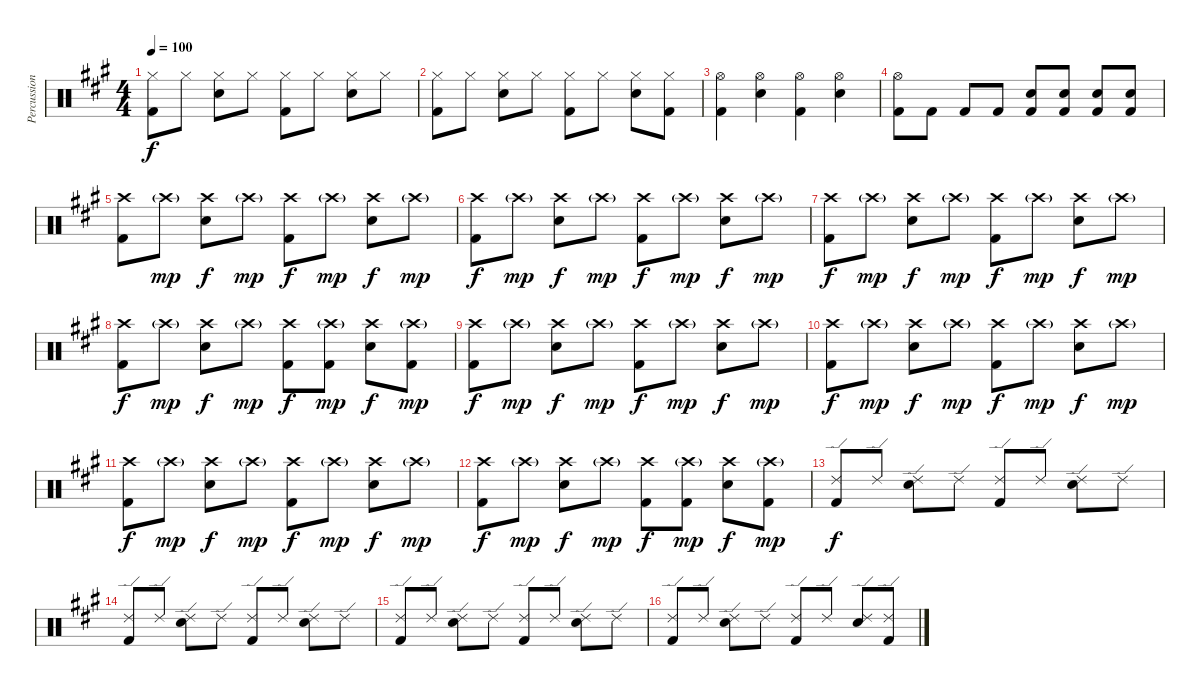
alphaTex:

\track ("Percussion" "Percussion") {instrument percussion}
\staff {score}
\articulation defaults
\ts (4 4)
\tempo 100
\clef neutral
\ks a
("Hi-Hat (closed)" "Kick (hit) 2").8{dy f} "Hi-Hat (closed)".8 ("Hi-Hat (closed)" "Snare (hit) 2").8 "Hi-Hat (closed)".8 ("Hi-Hat (closed)" "Kick (hit) 2").8 "Hi-Hat (closed)".8 ("Hi-Hat (closed)" "Snare (hit) 2").8 "Hi-Hat (closed)".8 |
("Hi-Hat (closed)" "Kick (hit) 2").8 "Hi-Hat (closed)".8 ("Hi-Hat (closed)" "Snare (hit) 2").8 "Hi-Hat (closed)".8 ("Hi-Hat (closed)" "Kick (hit) 2").8 "Hi-Hat (closed)".8 ("Hi-Hat (closed)" "Snare (hit) 2").8 ("Hi-Hat (closed)" "Kick (hit) 2").8 |
("Hi-Hat (open)" "Kick (hit) 2").4 ("Hi-Hat (open)" "Snare (hit) 2").4 ("Hi-Hat (open)" "Kick (hit) 2").4 ("Hi-Hat (open)" "Snare (hit) 2").4 |
("Hi-Hat (open)" "Kick (hit) 2").8 "Kick (hit) 2".8 "Kick (hit) 2".8 "Kick (hit) 2".8 ("Snare (hit) 2" "Kick (hit) 2").8 ("Snare (hit) 2" "Kick (hit) 2").8 ("Snare (hit) 2" "Kick (hit) 2").8 ("Snare (hit) 2" "Kick (hit) 2").8 |
("Crash high (hit)" "Kick (hit) 2").8 "Crash high (hit)"{g}.8{dy mp} ("Crash high (hit)" "Snare (hit) 2").8{dy f} "Crash high (hit)"{g}.8{dy mp} ("Crash high (hit)" "Kick (hit) 2").8{dy f} "Crash high (hit)"{g}.8{dy mp} ("Crash high (hit)" "Snare (hit) 2").8{dy f} "Crash high (hit)"{g}.8{dy mp} |
("Crash high (hit)" "Kick (hit) 2").8{dy f} "Crash high (hit)"{g}.8{dy mp} ("Crash high (hit)" "Snare (hit) 2").8{dy f} "Crash high (hit)"{g}.8{dy mp} ("Crash high (hit)" "Kick (hit) 2").8{dy f} "Crash high (hit)"{g}.8{dy mp} ("Crash high (hit)" "Snare (hit) 2").8{dy f} "Crash high (hit)"{g}.8{dy mp} |
("Crash high (hit)" "Kick (hit) 2").8{dy f} "Crash high (hit)"{g}.8{dy mp} ("Crash high (hit)" "Snare (hit) 2").8{dy f} "Crash high (hit)"{g}.8{dy mp} ("Crash high (hit)" "Kick (hit) 2").8{dy f} "Crash high (hit)"{g}.8{dy mp} ("Crash high (hit)" "Snare (hit) 2").8{dy f} "Crash high (hit)"{g}.8{dy mp} |
("Crash high (hit)" "Kick (hit) 2").8{dy f} "Crash high (hit)"{g}.8{dy mp} ("Crash high (hit)" "Snare (hit) 2").8{dy f} "Crash high (hit)"{g}.8{dy mp} ("Crash high (hit)" "Kick (hit) 2").8{dy f} ("Crash high (hit)"{g} "Kick (hit) 2").8{dy mp} ("Crash high (hit)" "Snare (hit) 2").8{dy f} ("Crash high (hit)"{g} "Kick (hit) 2").8{dy mp} |
("Crash high (hit)" "Kick (hit) 2").8{dy f} "Crash high (hit)"{g}.8{dy mp} ("Crash high (hit)" "Snare (hit) 2").8{dy f} "Crash high (hit)"{g}.8{dy mp} ("Crash high (hit)" "Kick (hit) 2").8{dy f} "Crash high (hit)"{g}.8{dy mp} ("Crash high (hit)" "Snare (hit) 2").8{dy f} "Crash high (hit)"{g}.8{dy mp} |
("Crash high (hit)" "Kick (hit) 2").8{dy f} "Crash high (hit)"{g}.8{dy mp} ("Crash high (hit)" "Snare (hit) 2").8{dy f} "Crash high (hit)"{g}.8{dy mp} ("Crash high (hit)" "Kick (hit) 2").8{dy f} "Crash high (hit)"{g}.8{dy mp} ("Crash high (hit)" "Snare (hit) 2").8{dy f} "Crash high (hit)"{g}.8{dy mp} |
("Crash high (hit)" "Kick (hit) 2").8{dy f} "Crash high (hit)"{g}.8{dy mp} ("Crash high (hit)" "Snare (hit) 2").8{dy f} "Crash high (hit)"{g}.8{dy mp} ("Crash high (hit)" "Kick (hit) 2").8{dy f} "Crash high (hit)"{g}.8{dy mp} ("Crash high (hit)" "Snare (hit) 2").8{dy f} "Crash high (hit)"{g}.8{dy mp} |
("Crash high (hit)" "Kick (hit) 2").8{dy f} "Crash high (hit)"{g}.8{dy mp} ("Crash high (hit)" "Snare (hit) 2").8{dy f} "Crash high (hit)"{g}.8{dy mp} ("Crash high (hit)" "Kick (hit) 2").8{dy f} ("Crash high (hit)"{g} "Kick (hit) 2").8{dy mp} ("Crash high (hit)" "Snare (hit) 2").8{dy f} ("Crash high (hit)"{g} "Kick (hit) 2").8{dy mp} |
("Ride (edge) 2" "Kick (hit) 2").8{dy f} "Ride (edge) 2".8 ("Ride (edge) 2" "Snare (hit) 2").8 "Ride (edge) 2".8 ("Ride (edge) 2" "Kick (hit) 2").8 "Ride (edge) 2".8 ("Ride (edge) 2" "Snare (hit) 2").8 "Ride (edge) 2".8 |
("Ride (edge) 2" "Kick (hit) 2").8 "Ride (edge) 2".8 ("Ride (edge) 2" "Snare (hit) 2").8 "Ride (edge) 2".8 ("Ride (edge) 2" "Kick (hit) 2").8 "Ride (edge) 2".8 ("Ride (edge) 2" "Snare (hit) 2").8 "Ride (edge) 2".8 |
("Ride (edge) 2" "Kick (hit) 2").8 "Ride (edge) 2".8 ("Ride (edge) 2" "Snare (hit) 2").8 "Ride (edge) 2".8 ("Ride (edge) 2" "Kick (hit) 2").8 "Ride (edge) 2".8 ("Ride (edge) 2" "Snare (hit) 2").8 "Ride (edge) 2".8 |
("Ride (edge) 2" "Kick (hit) 2").8 "Ride (edge) 2".8 ("Ride (edge) 2" "Snare (hit) 2").8 "Ride (edge) 2".8 ("Ride (edge) 2" "Kick (hit) 2").8 "Ride (edge) 2".8 ("Ride (edge) 2" "Snare (hit) 2").8 ("Ride (edge) 2" "Kick (hit) 2").8
